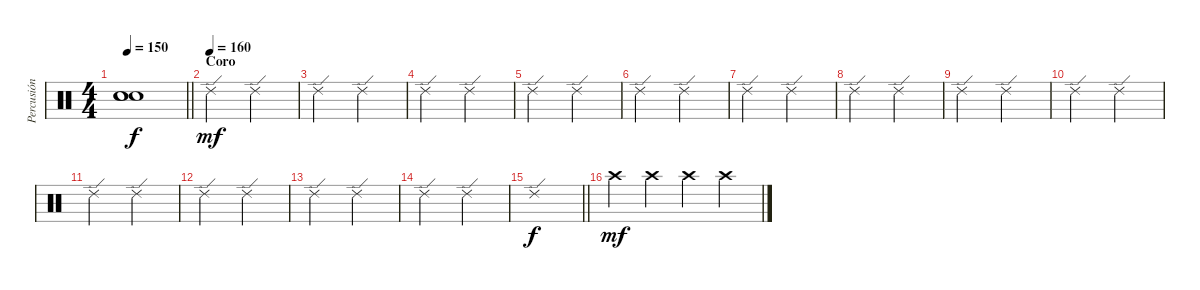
\track ("Percusión" "Percusión") {instrument percussion}
\staff {score}
\articulation defaults
\ts (4 4)
\tempo 150
\clef neutral
\barLineRight lightlight
\ks c
("Snare (hit)"{t} "Snare (hit)"{t} "Snare (hit)"{t}).1{dy f} |
\section ("" "Coro")
\tempo (160)
"Ride (edge) 2".2{dy mf} "Ride (edge) 2".2 |
"Ride (edge) 2".2 "Ride (edge) 2".2 |
"Ride (edge) 2".2 "Ride (edge) 2".2 |
"Ride (edge) 2".2 "Ride (edge) 2".2 |
"Ride (edge) 2".2 "Ride (edge) 2".2 |
"Ride (edge) 2".2 "Ride (edge) 2".2 |
"Ride (edge) 2".2 "Ride (edge) 2".2 |
"Ride (edge) 2".2 "Ride (edge) 2".2 |
"Ride (edge) 2".2 "Ride (edge) 2".2 |
"Ride (edge) 2".2 "Ride (edge) 2".2 |
"Ride (edge) 2".2 "Ride (edge) 2".2 |
"Ride (edge) 2".2 "Ride (edge) 2".2 |
"Ride (edge) 2".2 "Ride (edge) 2".2 |
\barLineRight lightlight "Ride (edge) 2".1{dy f}
|
"Crash high (hit)".4{dy mf} "Crash high (hit)".4 "Crash high (hit)".4 "Crash high (hit)".4
